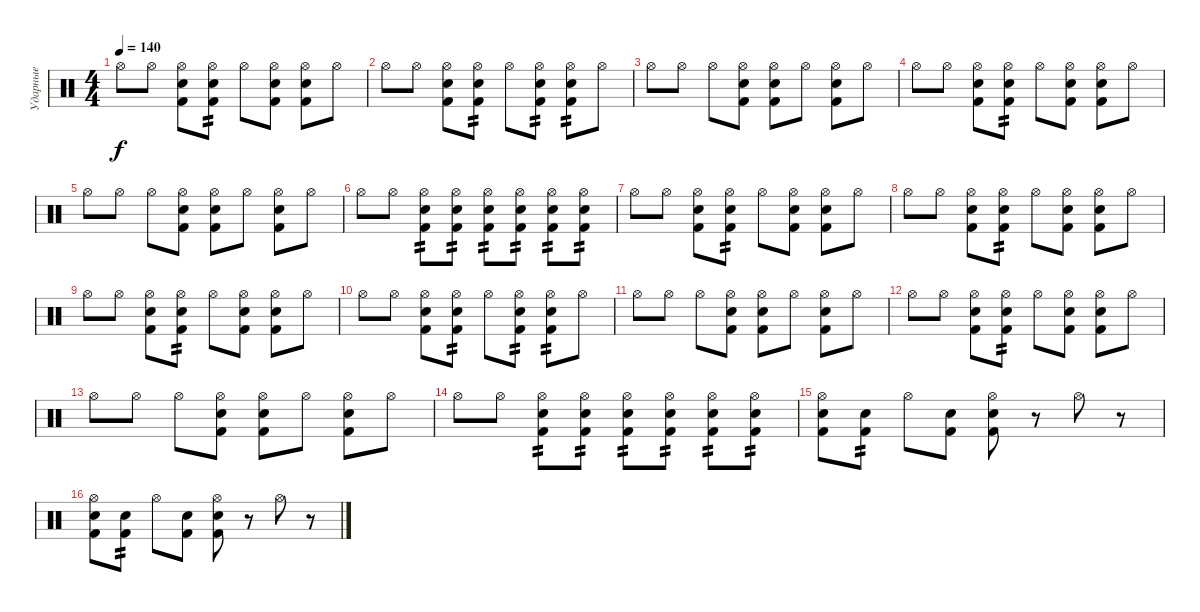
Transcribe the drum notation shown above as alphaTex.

\track ("Ударные" "Ударные") {instrument percussion}
\staff {score}
\articulation defaults
\ts (4 4)
\tempo 140
\clef neutral
\ks c "Hi-Hat (open)".8{dy f} "Hi-Hat (open)".8
("Snare (hit) 2" "Kick (hit) 2" "Hi-Hat (open)").8 ("Snare (hit) 2" "Kick (hit) 2" "Hi-Hat (open)").8{tp 2} "Hi-Hat (open)".8 ("Snare (hit) 2" "Kick (hit) 2" "Hi-Hat (open)").8 ("Snare (hit) 2" "Kick (hit) 2" "Hi-Hat (open)").8 "Hi-Hat (open)".8 |
"Hi-Hat (open)".8 "Hi-Hat (open)".8 ("Snare (hit) 2" "Kick (hit) 2" "Hi-Hat (open)").8 ("Snare (hit) 2" "Kick (hit) 2" "Hi-Hat (open)").8{tp 2} "Hi-Hat (open)".8 ("Snare (hit) 2" "Kick (hit) 2" "Hi-Hat (open)").8{tp 2} ("Snare (hit) 2" "Kick (hit) 2" "Hi-Hat (open)").8{tp 2} "Hi-Hat (open)".8 |
"Hi-Hat (open)".8 "Hi-Hat (open)".8 "Hi-Hat (open)".8 ("Snare (hit) 2" "Kick (hit) 2" "Hi-Hat (open)").8 ("Snare (hit) 2" "Kick (hit) 2" "Hi-Hat (open)").8 "Hi-Hat (open)".8 ("Electric Snare (hit)" "Kick (hit) 2" "Hi-Hat (open)").8 "Hi-Hat (open)".8 |
"Hi-Hat (open)".8 "Hi-Hat (open)".8 ("Snare (hit) 2" "Kick (hit) 2" "Hi-Hat (open)").8 ("Snare (hit) 2" "Kick (hit) 2" "Hi-Hat (open)").8{tp 2} "Hi-Hat (open)".8 ("Snare (hit) 2" "Kick (hit) 2" "Hi-Hat (open)").8 ("Snare (hit) 2" "Kick (hit) 2" "Hi-Hat (open)").8 "Hi-Hat (open)".8 |
"Hi-Hat (open)".8 "Hi-Hat (open)".8 "Hi-Hat (open)".8 ("Snare (hit) 2" "Kick (hit) 2" "Hi-Hat (open)").8 ("Snare (hit) 2" "Kick (hit) 2" "Hi-Hat (open)").8 "Hi-Hat (open)".8 ("Electric Snare (hit)" "Kick (hit) 2" "Hi-Hat (open)").8 "Hi-Hat (open)".8 |
"Hi-Hat (open)".8 "Hi-Hat (open)".8 ("Snare (hit) 2" "Kick (hit) 2" "Hi-Hat (open)").8{tp 2} ("Snare (hit) 2" "Kick (hit) 2" "Hi-Hat (open)").8{tp 2} ("Snare (hit) 2" "Kick (hit) 2" "Hi-Hat (open)").8{tp 2} ("Snare (hit) 2" "Kick (hit) 2" "Hi-Hat (open)").8{tp 2} ("Snare (hit) 2" "Kick (hit) 2" "Hi-Hat (open)").8{tp 2} ("Snare (hit) 2" "Kick (hit) 2" "Hi-Hat (open)").8{tp 2} |
"Hi-Hat (open)".8 "Hi-Hat (open)".8 ("Snare (hit) 2" "Kick (hit) 2" "Hi-Hat (open)").8 ("Snare (hit) 2" "Kick (hit) 2" "Hi-Hat (open)").8{tp 2} "Hi-Hat (open)".8 ("Snare (hit) 2" "Kick (hit) 2" "Hi-Hat (open)").8 ("Snare (hit) 2" "Kick (hit) 2" "Hi-Hat (open)").8 "Hi-Hat (open)".8 |
"Hi-Hat (open)".8 "Hi-Hat (open)".8 ("Snare (hit) 2" "Kick (hit) 2" "Hi-Hat (open)").8 ("Snare (hit) 2" "Kick (hit) 2" "Hi-Hat (open)").8{tp 2} "Hi-Hat (open)".8 ("Snare (hit) 2" "Kick (hit) 2" "Hi-Hat (open)").8 ("Snare (hit) 2" "Kick (hit) 2" "Hi-Hat (open)").8 "Hi-Hat (open)".8 |
"Hi-Hat (open)".8 "Hi-Hat (open)".8 ("Snare (hit) 2" "Kick (hit) 2" "Hi-Hat (open)").8 ("Snare (hit) 2" "Kick (hit) 2" "Hi-Hat (open)").8{tp 2} "Hi-Hat (open)".8 ("Snare (hit) 2" "Kick (hit) 2" "Hi-Hat (open)").8 ("Snare (hit) 2" "Kick (hit) 2" "Hi-Hat (open)").8 "Hi-Hat (open)".8 |
"Hi-Hat (open)".8 "Hi-Hat (open)".8 ("Snare (hit) 2" "Kick (hit) 2" "Hi-Hat (open)").8 ("Snare (hit) 2" "Kick (hit) 2" "Hi-Hat (open)").8{tp 2} "Hi-Hat (open)".8 ("Snare (hit) 2" "Kick (hit) 2" "Hi-Hat (open)").8{tp 2} ("Snare (hit) 2" "Kick (hit) 2" "Hi-Hat (open)").8{tp 2} "Hi-Hat (open)".8 |
"Hi-Hat (open)".8 "Hi-Hat (open)".8 "Hi-Hat (open)".8 ("Snare (hit) 2" "Kick (hit) 2" "Hi-Hat (open)").8 ("Snare (hit) 2" "Kick (hit) 2" "Hi-Hat (open)").8 "Hi-Hat (open)".8 ("Electric Snare (hit)" "Kick (hit) 2" "Hi-Hat (open)").8 "Hi-Hat (open)".8 |
"Hi-Hat (open)".8 "Hi-Hat (open)".8 ("Snare (hit) 2" "Kick (hit) 2" "Hi-Hat (open)").8 ("Snare (hit) 2" "Kick (hit) 2" "Hi-Hat (open)").8{tp 2} "Hi-Hat (open)".8 ("Snare (hit) 2" "Kick (hit) 2" "Hi-Hat (open)").8 ("Snare (hit) 2" "Kick (hit) 2" "Hi-Hat (open)").8 "Hi-Hat (open)".8 |
"Hi-Hat (open)".8 "Hi-Hat (open)".8 "Hi-Hat (open)".8 ("Snare (hit) 2" "Kick (hit) 2" "Hi-Hat (open)").8 ("Snare (hit) 2" "Kick (hit) 2" "Hi-Hat (open)").8 "Hi-Hat (open)".8 ("Electric Snare (hit)" "Kick (hit) 2" "Hi-Hat (open)").8 "Hi-Hat (open)".8 |
"Hi-Hat (open)".8 "Hi-Hat (open)".8 ("Snare (hit) 2" "Kick (hit) 2" "Hi-Hat (open)").8{tp 2} ("Snare (hit) 2" "Kick (hit) 2" "Hi-Hat (open)").8{tp 2} ("Snare (hit) 2" "Kick (hit) 2" "Hi-Hat (open)").8{tp 2} ("Snare (hit) 2" "Kick (hit) 2" "Hi-Hat (open)").8{tp 2} ("Snare (hit) 2" "Kick (hit) 2" "Hi-Hat (open)").8{tp 2} ("Snare (hit) 2" "Kick (hit) 2" "Hi-Hat (open)").8{tp 2} |
("Snare (hit) 2" "Kick (hit) 2" "Hi-Hat (open)").8 ("Snare (hit) 2" "Kick (hit) 2").8{tp 2} "Hi-Hat (open)".8 ("Snare (hit) 2" "Kick (hit) 2").8 ("Snare (hit) 2" "Kick (hit) 2" "Hi-Hat (open)").8 r.8 "Hi-Hat (open)".8 r.8 |
("Snare (hit) 2" "Kick (hit) 2" "Hi-Hat (open)").8 ("Snare (hit) 2" "Kick (hit) 2").8{tp 2} "Hi-Hat (open)".8 ("Snare (hit) 2" "Kick (hit) 2").8 ("Snare (hit) 2" "Kick (hit) 2" "Hi-Hat (open)").8 r.8 "Hi-Hat (open)".8 r.8
